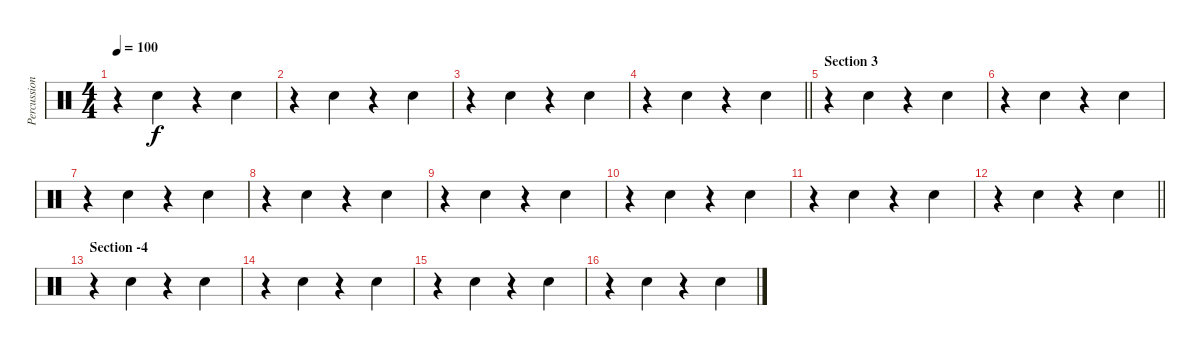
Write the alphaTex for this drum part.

\track ("Percussion" "Percussion") {instrument percussion}
\staff {score}
\articulation defaults
\ts (4 4)
\tempo 100
\clef neutral
\ks c
r.4{dy f} "Hand Clap (hit)".4 r.4 "Hand Clap (hit)".4 |
r.4 "Hand Clap (hit)".4 r.4 "Hand Clap (hit)".4 |
r.4 "Hand Clap (hit)".4 r.4 "Hand Clap (hit)".4 |
\barLineRight lightlight
r.4 "Hand Clap (hit)".4 r.4 "Hand Clap (hit)".4 |
\section ("" "Section 3")
r.4 "Hand Clap (hit)".4 r.4 "Hand Clap (hit)".4 |
r.4 "Hand Clap (hit)".4 r.4 "Hand Clap (hit)".4 |
r.4 "Hand Clap (hit)".4 r.4 "Hand Clap (hit)".4 |
r.4 "Hand Clap (hit)".4 r.4 "Hand Clap (hit)".4 |
r.4 "Hand Clap (hit)".4 r.4 "Hand Clap (hit)".4 |
r.4 "Hand Clap (hit)".4 r.4 "Hand Clap (hit)".4 |
r.4 "Hand Clap (hit)".4 r.4 "Hand Clap (hit)".4 |
\barLineRight lightlight
r.4 "Hand Clap (hit)".4 r.4 "Hand Clap (hit)".4 |
\section ("" "Section -4")
r.4 "Hand Clap (hit)".4 r.4 "Hand Clap (hit)".4 |
r.4 "Hand Clap (hit)".4 r.4 "Hand Clap (hit)".4 |
r.4 "Hand Clap (hit)".4 r.4 "Hand Clap (hit)".4 |
r.4 "Hand Clap (hit)".4 r.4 "Hand Clap (hit)".4
